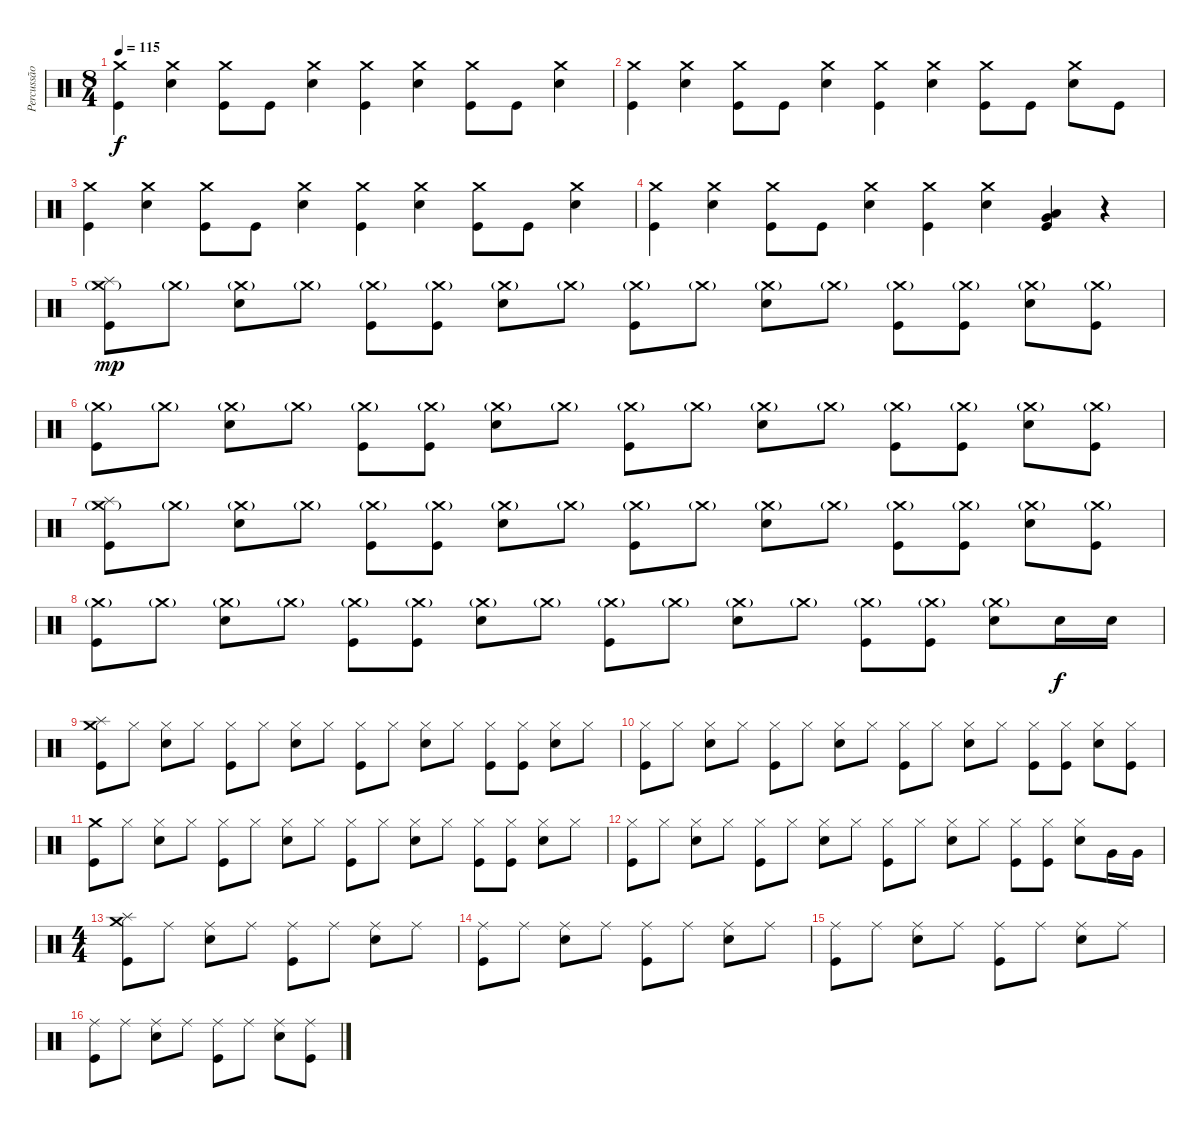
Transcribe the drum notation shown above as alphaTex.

\track ("Percussão" "Percussão") {instrument percussion}
\staff {score}
\articulation defaults
\ts (8 4)
\tempo 115
\clef neutral
\ks c
("Crash medium (hit)" "Kick (hit)").4{dy f} ("Crash medium (hit)" "Electric Snare (hit)").4 ("Crash medium (hit)" "Kick (hit)").8 "Kick (hit)".8 ("Crash medium (hit)" "Electric Snare (hit)").4 ("Crash medium (hit)" "Kick (hit)").4 ("Crash medium (hit)" "Electric Snare (hit)").4 ("Crash medium (hit)" "Kick (hit)").8 "Kick (hit)".8 ("Crash medium (hit)" "Electric Snare (hit)").4 |
("Crash medium (hit)" "Kick (hit)").4 ("Crash medium (hit)" "Electric Snare (hit)").4 ("Crash medium (hit)" "Kick (hit)").8 "Kick (hit)".8 ("Crash medium (hit)" "Electric Snare (hit)").4 ("Crash medium (hit)" "Kick (hit)").4 ("Crash medium (hit)" "Electric Snare (hit)").4 ("Crash medium (hit)" "Kick (hit)").8 "Kick (hit)".8 ("Crash medium (hit)" "Electric Snare (hit)").8 "Kick (hit)".8 |
("Crash medium (hit)" "Kick (hit)").4 ("Crash medium (hit)" "Electric Snare (hit)").4 ("Crash medium (hit)" "Kick (hit)").8 "Kick (hit)".8 ("Crash medium (hit)" "Electric Snare (hit)").4 ("Crash medium (hit)" "Kick (hit)").4 ("Crash medium (hit)" "Electric Snare (hit)").4 ("Crash medium (hit)" "Kick (hit)").8 "Kick (hit)".8 ("Crash medium (hit)" "Electric Snare (hit)").4 |
("Crash medium (hit)" "Kick (hit)").4 ("Crash medium (hit)" "Electric Snare (hit)").4 ("Crash medium (hit)" "Kick (hit)").8 "Kick (hit)".8 ("Crash medium (hit)" "Electric Snare (hit)").4 ("Crash medium (hit)" "Kick (hit)").4 ("Crash medium (hit)" "Electric Snare (hit)").4 ("Low Tom (hit)" "Very Low Tom (hit)" "Kick (hit)").4 r.4 |
("Splash (hit)" "Crash medium (hit)"{g} "Kick (hit)").8{dy mp} "Crash medium (hit)"{g}.8 ("Crash medium (hit)"{g} "Electric Snare (hit)").8 "Crash medium (hit)"{g}.8 ("Crash medium (hit)"{g} "Kick (hit)").8 ("Crash medium (hit)"{g} "Kick (hit)").8 ("Crash medium (hit)"{g} "Electric Snare (hit)").8 "Crash medium (hit)"{g}.8 ("Crash medium (hit)"{g} "Kick (hit)").8 "Crash medium (hit)"{g}.8 ("Crash medium (hit)"{g} "Electric Snare (hit)").8 "Crash medium (hit)"{g}.8 ("Crash medium (hit)"{g} "Kick (hit)").8 ("Crash medium (hit)"{g} "Kick (hit)").8 ("Crash medium (hit)"{g} "Electric Snare (hit)").8 ("Crash medium (hit)"{g} "Kick (hit)").8 |
("Crash medium (hit)"{g} "Kick (hit)").8 "Crash medium (hit)"{g}.8 ("Crash medium (hit)"{g} "Electric Snare (hit)").8 "Crash medium (hit)"{g}.8 ("Crash medium (hit)"{g} "Kick (hit)").8 ("Crash medium (hit)"{g} "Kick (hit)").8 ("Crash medium (hit)"{g} "Electric Snare (hit)").8 "Crash medium (hit)"{g}.8 ("Crash medium (hit)"{g} "Kick (hit)").8 "Crash medium (hit)"{g}.8 ("Crash medium (hit)"{g} "Electric Snare (hit)").8 "Crash medium (hit)"{g}.8 ("Crash medium (hit)"{g} "Kick (hit)").8 ("Crash medium (hit)"{g} "Kick (hit)").8 ("Crash medium (hit)"{g} "Electric Snare (hit)").8 ("Crash medium (hit)"{g} "Kick (hit)").8 |
("Splash (hit)" "Crash medium (hit)"{g} "Kick (hit)").8 "Crash medium (hit)"{g}.8 ("Crash medium (hit)"{g} "Electric Snare (hit)").8 "Crash medium (hit)"{g}.8 ("Crash medium (hit)"{g} "Kick (hit)").8 ("Crash medium (hit)"{g} "Kick (hit)").8 ("Crash medium (hit)"{g} "Electric Snare (hit)").8 "Crash medium (hit)"{g}.8 ("Crash medium (hit)"{g} "Kick (hit)").8 "Crash medium (hit)"{g}.8 ("Crash medium (hit)"{g} "Electric Snare (hit)").8 "Crash medium (hit)"{g}.8 ("Crash medium (hit)"{g} "Kick (hit)").8 ("Crash medium (hit)"{g} "Kick (hit)").8 ("Crash medium (hit)"{g} "Electric Snare (hit)").8 ("Crash medium (hit)"{g} "Kick (hit)").8 |
("Crash medium (hit)"{g} "Kick (hit)").8 "Crash medium (hit)"{g}.8 ("Crash medium (hit)"{g} "Electric Snare (hit)").8 "Crash medium (hit)"{g}.8 ("Crash medium (hit)"{g} "Kick (hit)").8 ("Crash medium (hit)"{g} "Kick (hit)").8 ("Crash medium (hit)"{g} "Electric Snare (hit)").8 "Crash medium (hit)"{g}.8 ("Crash medium (hit)"{g} "Kick (hit)").8 "Crash medium (hit)"{g}.8 ("Crash medium (hit)"{g} "Electric Snare (hit)").8 "Crash medium (hit)"{g}.8 ("Crash medium (hit)"{g} "Kick (hit)").8 ("Crash medium (hit)"{g} "Kick (hit)").8 ("Crash medium (hit)"{g} "Electric Snare (hit)").8 "Electric Snare (hit)".16{dy f} "Electric Snare (hit)".16 |
("Crash medium (hit)" "Splash (hit)" "Kick (hit)").8 "Hi-Hat (closed)".8 ("Hi-Hat (closed)" "Electric Snare (hit)").8 "Hi-Hat (closed)".8 ("Hi-Hat (closed)" "Kick (hit)").8 "Hi-Hat (closed)".8 ("Hi-Hat (closed)" "Electric Snare (hit)").8 "Hi-Hat (closed)".8 ("Hi-Hat (closed)" "Kick (hit)").8 "Hi-Hat (closed)".8 ("Hi-Hat (closed)" "Electric Snare (hit)").8 "Hi-Hat (closed)".8 ("Hi-Hat (closed)" "Kick (hit)").8 ("Hi-Hat (closed)" "Kick (hit)").8 ("Hi-Hat (closed)" "Electric Snare (hit)").8 "Hi-Hat (closed)".8 |
("Hi-Hat (closed)" "Kick (hit)").8 "Hi-Hat (closed)".8 ("Hi-Hat (closed)" "Electric Snare (hit)").8 "Hi-Hat (closed)".8 ("Hi-Hat (closed)" "Kick (hit)").8 "Hi-Hat (closed)".8 ("Hi-Hat (closed)" "Electric Snare (hit)").8 "Hi-Hat (closed)".8 ("Hi-Hat (closed)" "Kick (hit)").8 "Hi-Hat (closed)".8 ("Hi-Hat (closed)" "Electric Snare (hit)").8 "Hi-Hat (closed)".8 ("Hi-Hat (closed)" "Kick (hit)").8 ("Hi-Hat (closed)" "Kick (hit)").8 ("Hi-Hat (closed)" "Electric Snare (hit)").8 ("Hi-Hat (closed)" "Kick (hit)").8 |
("Crash medium (hit)" "Kick (hit)").8 "Hi-Hat (closed)".8 ("Hi-Hat (closed)" "Electric Snare (hit)").8 "Hi-Hat (closed)".8 ("Hi-Hat (closed)" "Kick (hit)").8 "Hi-Hat (closed)".8 ("Hi-Hat (closed)" "Electric Snare (hit)").8 "Hi-Hat (closed)".8 ("Hi-Hat (closed)" "Kick (hit)").8 "Hi-Hat (closed)".8 ("Hi-Hat (closed)" "Electric Snare (hit)").8 "Hi-Hat (closed)".8 ("Hi-Hat (closed)" "Kick (hit)").8 ("Hi-Hat (closed)" "Kick (hit)").8 ("Hi-Hat (closed)" "Electric Snare (hit)").8 "Hi-Hat (closed)".8 |
("Hi-Hat (closed)" "Kick (hit)").8 "Hi-Hat (closed)".8 ("Hi-Hat (closed)" "Electric Snare (hit)").8 "Hi-Hat (closed)".8 ("Hi-Hat (closed)" "Kick (hit)").8 "Hi-Hat (closed)".8 ("Hi-Hat (closed)" "Electric Snare (hit)").8 "Hi-Hat (closed)".8 ("Hi-Hat (closed)" "Kick (hit)").8 "Hi-Hat (closed)".8 ("Hi-Hat (closed)" "Electric Snare (hit)").8 "Hi-Hat (closed)".8 ("Hi-Hat (closed)" "Kick (hit)").8 ("Hi-Hat (closed)" "Kick (hit)").8 ("Hi-Hat (closed)" "Electric Snare (hit)").8 "Very Low Tom (hit)".16 "Very Low Tom (hit)".16 |
\ts (4 4)
("Crash medium (hit)" "Splash (hit)" "Kick (hit)").8 "Ride (middle)".8 ("Ride (middle)" "Electric Snare (hit)").8 "Ride (middle)".8 ("Ride (middle)" "Kick (hit)").8 "Ride (middle)".8 ("Ride (middle)" "Electric Snare (hit)").8 "Ride (middle)".8 |
("Ride (middle)" "Kick (hit)").8 "Ride (middle)".8 ("Ride (middle)" "Electric Snare (hit)").8 "Ride (middle)".8 ("Ride (middle)" "Kick (hit)").8 "Ride (middle)".8 ("Ride (middle)" "Electric Snare (hit)").8 "Ride (middle)".8 |
("Ride (middle)" "Kick (hit)").8 "Ride (middle)".8 ("Ride (middle)" "Electric Snare (hit)").8 "Ride (middle)".8 ("Ride (middle)" "Kick (hit)").8 "Ride (middle)".8 ("Ride (middle)" "Electric Snare (hit)").8 "Ride (middle)".8 |
("Ride (middle)" "Kick (hit)").8 "Ride (middle)".8 ("Ride (middle)" "Electric Snare (hit)").8 "Ride (middle)".8 ("Ride (middle)" "Kick (hit)").8 "Ride (middle)".8 ("Ride (middle)" "Electric Snare (hit)").8 ("Ride (middle)" "Kick (hit)").8
